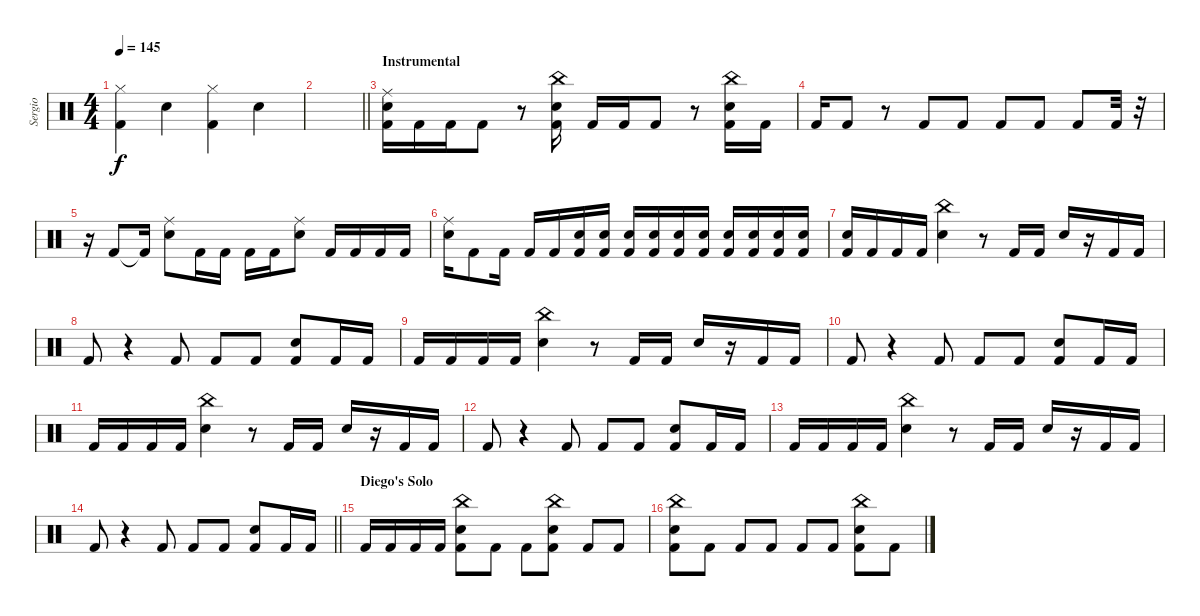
\track ("Sergio" "Sergio") {instrument percussion}
\staff {score}
\articulation defaults
\ts (4 4)
\tempo 145
\clef neutral
\ks c
("Hi-Hat (closed)" "Kick (hit) 2").4{dy f} "Electric Snare (hit)".4 ("Hi-Hat (closed)" "Kick (hit) 2").4 "Electric Snare (hit)".4 |
\barLineRight lightlight
|
\section ("" "Instrumental")
("Ride (middle)" "Electric Snare (hit)" "Kick (hit) 2").16 "Kick (hit) 2".16 "Kick (hit) 2".16 "Kick (hit) 2".8 r.8 ("China (hit)" "Electric Snare (hit)" "Kick (hit) 2").16 "Kick (hit) 2".16 "Kick (hit) 2".16 "Kick (hit) 2".8 r.8 ("China (hit)" "Electric Snare (hit)" "Kick (hit) 2").16 "Kick (hit) 2".16 |
"Kick (hit) 2".16 "Kick (hit) 2".8 r.8 "Kick (hit) 2".8 "Kick (hit) 2".8 "Kick (hit) 2".8 "Kick (hit) 2".8 "Kick (hit) 2".8 "Kick (hit) 2".32 r.32 |
r.16 "Kick (hit) 2".8 "Kick (hit) 2"{t}.16 ("Ride (middle)" "Electric Snare (hit)").8 "Kick (hit) 2".16 "Kick (hit) 2".16 "Kick (hit) 2".16 "Kick (hit) 2".16 ("Ride (middle)" "Electric Snare (hit)").8 "Kick (hit) 2".16 "Kick (hit) 2".16 "Kick (hit) 2".16 "Kick (hit) 2".16 |
("Ride (middle)" "Electric Snare (hit)").16 "Kick (hit) 2".8 "Kick (hit) 2".16 "Kick (hit) 2".16 "Kick (hit) 2".16 ("Electric Snare (hit)" "Kick (hit) 2").16 ("Electric Snare (hit)" "Kick (hit) 2").16 ("Electric Snare (hit)" "Kick (hit) 2").16 ("Electric Snare (hit)" "Kick (hit) 2").16 ("Electric Snare (hit)" "Kick (hit) 2").16 ("Electric Snare (hit)" "Kick (hit) 2").16 ("Electric Snare (hit)" "Kick (hit) 2").16 ("Electric Snare (hit)" "Kick (hit) 2").16 ("Electric Snare (hit)" "Kick (hit) 2").16 ("Electric Snare (hit)" "Kick (hit) 2").16 |
("Electric Snare (hit)" "Kick (hit) 2").16 "Kick (hit) 2".16 "Kick (hit) 2".16 "Kick (hit) 2".16 ("China (hit)" "Electric Snare (hit)").4 r.8 "Kick (hit) 2".16 "Kick (hit) 2".16 "Electric Snare (hit)".16 r.16 "Kick (hit) 2".16 "Kick (hit) 2".16 |
"Kick (hit) 2".8 r.4 "Kick (hit) 2".8 "Kick (hit) 2".8 "Kick (hit) 2".8 ("Electric Snare (hit)" "Kick (hit) 2").8 "Kick (hit) 2".16 "Kick (hit) 2".16 |
"Kick (hit) 2".16 "Kick (hit) 2".16 "Kick (hit) 2".16 "Kick (hit) 2".16 ("China (hit)" "Electric Snare (hit)").4 r.8 "Kick (hit) 2".16 "Kick (hit) 2".16 "Electric Snare (hit)".16 r.16 "Kick (hit) 2".16 "Kick (hit) 2".16 |
"Kick (hit) 2".8 r.4 "Kick (hit) 2".8 "Kick (hit) 2".8 "Kick (hit) 2".8 ("Electric Snare (hit)" "Kick (hit) 2").8 "Kick (hit) 2".16 "Kick (hit) 2".16 |
"Kick (hit) 2".16 "Kick (hit) 2".16 "Kick (hit) 2".16 "Kick (hit) 2".16 ("China (hit)" "Electric Snare (hit)").4 r.8 "Kick (hit) 2".16 "Kick (hit) 2".16 "Electric Snare (hit)".16 r.16 "Kick (hit) 2".16 "Kick (hit) 2".16 |
"Kick (hit) 2".8 r.4 "Kick (hit) 2".8 "Kick (hit) 2".8 "Kick (hit) 2".8 ("Electric Snare (hit)" "Kick (hit) 2").8 "Kick (hit) 2".16 "Kick (hit) 2".16 |
"Kick (hit) 2".16 "Kick (hit) 2".16 "Kick (hit) 2".16 "Kick (hit) 2".16 ("China (hit)" "Electric Snare (hit)").4 r.8 "Kick (hit) 2".16 "Kick (hit) 2".16 "Electric Snare (hit)".16 r.16 "Kick (hit) 2".16 "Kick (hit) 2".16 |
\barLineRight lightlight "Kick (hit) 2".8
r.4 "Kick (hit) 2".8 "Kick (hit) 2".8 "Kick (hit) 2".8 ("Electric Snare (hit)" "Kick (hit) 2").8 "Kick (hit) 2".16 "Kick (hit) 2".16 |
\section ("" "Diego's Solo")
"Kick (hit) 2".16 "Kick (hit) 2".16 "Kick (hit) 2".16 "Kick (hit) 2".16 ("China (hit)" "Electric Snare (hit)" "Kick (hit) 2").8 "Kick (hit) 2".8 "Kick (hit) 2".8 ("China (hit)" "Electric Snare (hit)" "Kick (hit) 2").8 "Kick (hit) 2".8 "Kick (hit) 2".8 |
("China (hit)" "Electric Snare (hit)" "Kick (hit) 2").8 "Kick (hit) 2".8 "Kick (hit) 2".8 "Kick (hit) 2".8 "Kick (hit) 2".8 "Kick (hit) 2".8 ("China (hit)" "Electric Snare (hit)" "Kick (hit) 2").8 "Kick (hit) 2".8
